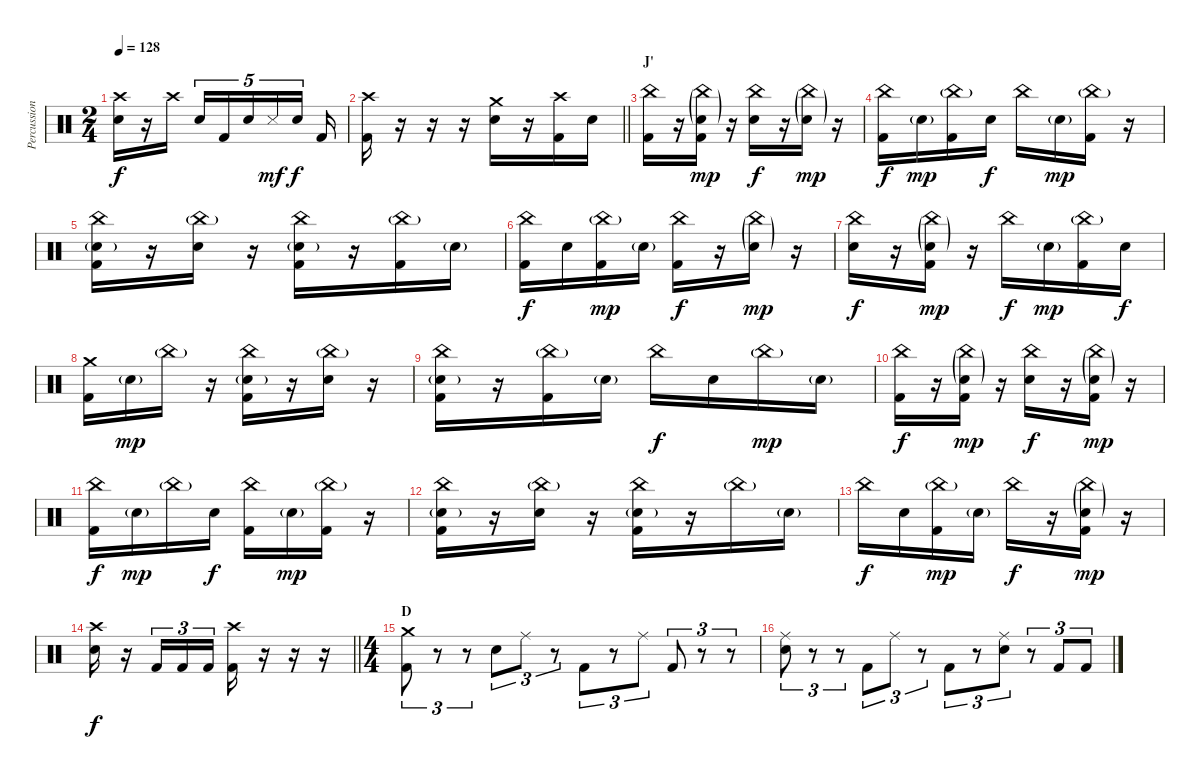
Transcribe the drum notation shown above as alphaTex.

\track ("Percussion" "Percussion") {instrument percussion}
\staff {score}
\articulation defaults
\ts (2 4)
\tempo 128
\clef neutral
\ks c
("Crash high (hit)" "Snare (hit) 2").16{dy f} r.16 "Crash high (hit)".16{beam splitsecondary} "Snare (hit) 2".16{tu (5 4)} "Kick (hit) 2".16{tu (5 4)} "Snare (hit) 2".16{tu (5 4)} "Metronome (hit)".16{tu (5 4) dy mf} "Snare (hit) 2".16{tu (5 4) dy f beam splitsecondary} "Kick (hit) 2".16 |
\barLineRight lightlight
("Crash high (hit)" "Kick (hit) 2").16 r.16 r.16 r.16 ("Crash medium (hit)" "Snare (hit) 2").16 r.16 ("Crash high (hit)" "Kick (hit) 2").16 "Snare (hit) 2".16 |
\section ("" "J'")
("China (hit)" "Kick (hit) 2").16 r.16 ("China (hit)"{g} "Snare (hit) 2"{g} "Kick (hit) 2").16{dy mp} r.16 ("China (hit)" "Snare (hit) 2").16{dy f} r.16 ("China (hit)"{g} "Snare (hit) 2"{g}).16{dy mp} r.16 |
("China (hit)" "Kick (hit) 2").16{dy f} "Snare (hit) 2"{g}.16{dy mp} ("China (hit)"{g} "Kick (hit) 2").16 "Snare (hit) 2".16{dy f} "China (hit)".16 "Snare (hit) 2"{g}.16{dy mp} ("China (hit)"{g} "Kick (hit) 2").16 r.16 |
("China (hit)" "Snare (hit) 2"{g} "Kick (hit) 2").16 r.16 ("China (hit)"{g} "Snare (hit) 2").16 r.16 ("China (hit)" "Snare (hit) 2"{g} "Kick (hit) 2").16 r.16 ("China (hit)"{g} "Kick (hit) 2").16 "Snare (hit) 2"{g}.16 |
("China (hit)" "Kick (hit) 2").16{dy f} "Snare (hit) 2".16 ("China (hit)"{g} "Kick (hit) 2").16{dy mp} "Snare (hit) 2"{g}.16 ("China (hit)" "Kick (hit) 2").16{dy f} r.16 ("China (hit)"{g} "Snare (hit) 2"{g}).16{dy mp} r.16 |
("China (hit)" "Snare (hit) 2").16{dy f} r.16 ("China (hit)"{g} "Snare (hit) 2"{g} "Kick (hit) 2").16{dy mp} r.16 "China (hit)".16{dy f} "Snare (hit) 2"{g}.16{dy mp} ("China (hit)"{g} "Kick (hit) 2").16 "Snare (hit) 2".16{dy f} |
("Crash medium (hit)" "Kick (hit) 2").16 "Snare (hit) 2"{g}.16{dy mp} "China (hit)"{g}.16 r.16 ("China (hit)" "Snare (hit) 2"{g} "Kick (hit) 2").16 r.16 ("China (hit)"{g} "Snare (hit) 2").16 r.16 |
("China (hit)" "Snare (hit) 2"{g} "Kick (hit) 2").16 r.16 ("China (hit)"{g} "Kick (hit) 2").16 "Snare (hit) 2"{g}.16 "China (hit)".16{dy f} "Snare (hit) 2".16 "China (hit)"{g}.16{dy mp} "Snare (hit) 2"{g}.16 |
("China (hit)" "Kick (hit) 2").16{dy f} r.16 ("China (hit)"{g} "Snare (hit) 2"{g} "Kick (hit) 2").16{dy mp} r.16 ("China (hit)" "Snare (hit) 2").16{dy f} r.16 ("China (hit)"{g} "Snare (hit) 2"{g} "Kick (hit) 2").16{dy mp} r.16 |
("China (hit)" "Kick (hit) 2").16{dy f} "Snare (hit) 2"{g}.16{dy mp} "China (hit)"{g}.16 "Snare (hit) 2".16{dy f} ("China (hit)" "Kick (hit) 2").16 "Snare (hit) 2"{g}.16{dy mp} ("China (hit)"{g} "Kick (hit) 2").16 r.16 |
("China (hit)" "Snare (hit) 2"{g} "Kick (hit) 2").16 r.16 ("China (hit)"{g} "Snare (hit) 2").16 r.16 ("China (hit)" "Snare (hit) 2"{g} "Kick (hit) 2").16 r.16 "China (hit)"{g}.16 "Snare (hit) 2"{g}.16 |
"China (hit)".16{dy f} "Snare (hit) 2".16 ("China (hit)"{g} "Kick (hit) 2").16{dy mp} "Snare (hit) 2"{g}.16 "China (hit)".16{dy f} r.16 ("China (hit)"{g} "Snare (hit) 2"{g} "Kick (hit) 2").16{dy mp} r.16 |
\barLineRight lightlight
("Crash high (hit)" "Snare (hit) 2").16{dy f} r.16 "Kick (hit) 2".16{tu (3 2)} "Kick (hit) 2".16{tu (3 2)} "Kick (hit) 2".16{tu (3 2)} ("Crash high (hit)" "Kick (hit) 2").16 r.16 r.16 r.16 |
\ts (4 4)
\section ("" "D")
("Crash medium (hit)" "Kick (hit) 2").8{tu (3 2)} r.8{tu (3 2)} r.8{tu (3 2)} "Snare (hit) 2".8{tu (3 2)} "Ride (middle)".8{tu (3 2)} r.8{tu (3 2)} "Kick (hit) 2".8{tu (3 2)} r.8{tu (3 2)} "Ride (middle)".8{tu (3 2)} "Kick (hit) 2".8{tu (3 2)} r.8{tu (3 2)} r.8{tu (3 2)} |
("Ride (middle)" "Snare (hit) 2").8{tu (3 2)} r.8{tu (3 2)} r.8{tu (3 2)} "Kick (hit) 2".8{tu (3 2)} "Ride (middle)".8{tu (3 2)} r.8{tu (3 2)} "Kick (hit) 2".8{tu (3 2)} r.8{tu (3 2)} ("Ride (middle)" "Snare (hit) 2").8{tu (3 2)} r.8{tu (3 2)} "Kick (hit) 2".8{tu (3 2)} "Kick (hit) 2".8{tu (3 2)}
